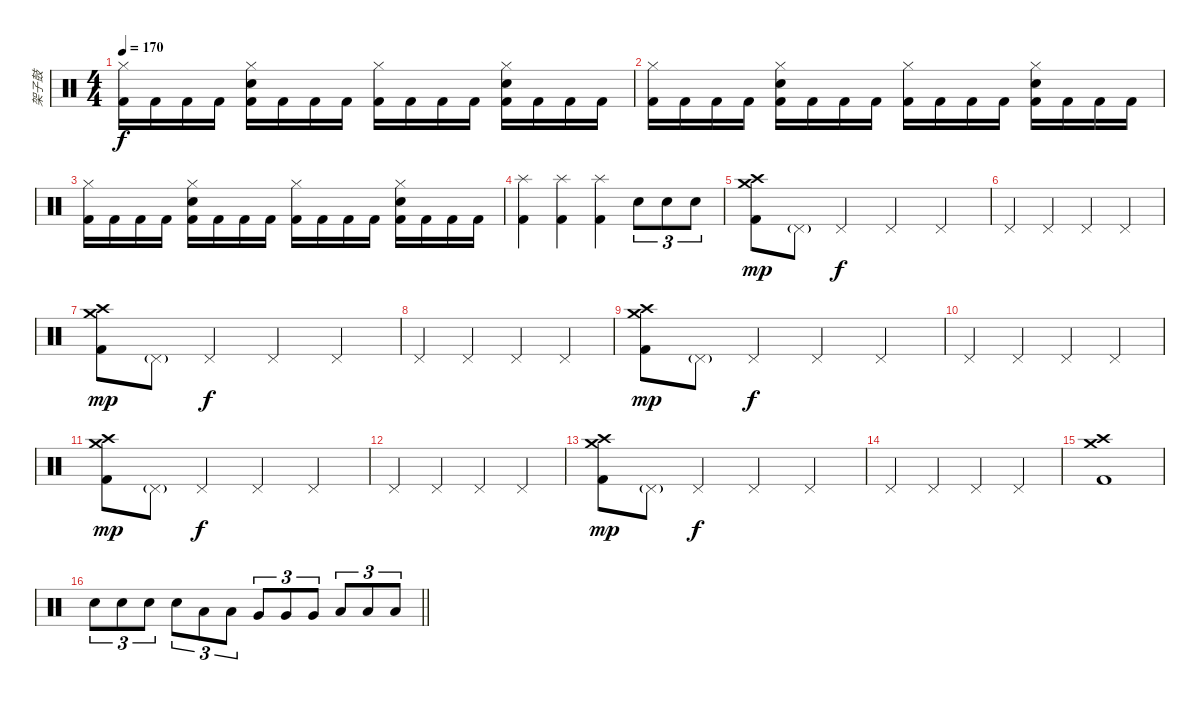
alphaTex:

\track ("架子鼓" "架子鼓") {instrument percussion}
\staff {score}
\articulation defaults
\ts (4 4)
\tempo 170
\clef neutral
\ks c
("Hi-Hat (closed)" "Kick (hit) 2").16{dy f} "Kick (hit) 2".16 "Kick (hit) 2".16 "Kick (hit) 2".16 ("Hi-Hat (closed)" "Snare (hit) 2" "Kick (hit) 2").16 "Kick (hit) 2".16 "Kick (hit) 2".16 "Kick (hit) 2".16 ("Hi-Hat (closed)" "Kick (hit) 2").16 "Kick (hit) 2".16 "Kick (hit) 2".16 "Kick (hit) 2".16 ("Hi-Hat (closed)" "Snare (hit) 2" "Kick (hit) 2").16 "Kick (hit) 2".16 "Kick (hit) 2".16 "Kick (hit) 2".16 |
("Hi-Hat (closed)" "Kick (hit) 2").16 "Kick (hit) 2".16 "Kick (hit) 2".16 "Kick (hit) 2".16 ("Hi-Hat (closed)" "Snare (hit) 2" "Kick (hit) 2").16 "Kick (hit) 2".16 "Kick (hit) 2".16 "Kick (hit) 2".16 ("Hi-Hat (closed)" "Kick (hit) 2").16 "Kick (hit) 2".16 "Kick (hit) 2".16 "Kick (hit) 2".16 ("Hi-Hat (closed)" "Snare (hit) 2" "Kick (hit) 2").16 "Kick (hit) 2".16 "Kick (hit) 2".16 "Kick (hit) 2".16 |
("Hi-Hat (closed)" "Kick (hit) 2").16 "Kick (hit) 2".16 "Kick (hit) 2".16 "Kick (hit) 2".16 ("Hi-Hat (closed)" "Snare (hit) 2" "Kick (hit) 2").16 "Kick (hit) 2".16 "Kick (hit) 2".16 "Kick (hit) 2".16 ("Hi-Hat (closed)" "Kick (hit) 2").16 "Kick (hit) 2".16 "Kick (hit) 2".16 "Kick (hit) 2".16 ("Hi-Hat (closed)" "Snare (hit) 2" "Kick (hit) 2").16 "Kick (hit) 2".16 "Kick (hit) 2".16 "Kick (hit) 2".16 |
("Kick (hit) 2" "Splash (hit)").4 ("Kick (hit) 2" "Splash (hit)").4 ("Kick (hit) 2" "Splash (hit)").4 "Snare (hit) 2".8{tu (3 2)} "Snare (hit) 2".8{tu (3 2)} "Snare (hit) 2".8{tu (3 2)} |
("Crash medium (hit)" "Kick (hit) 2" "Crash high (hit)").8{dy mp} "Pedal Hi-Hat (hit)"{g}.8 "Pedal Hi-Hat (hit)".4{dy f} "Pedal Hi-Hat (hit)".4 "Pedal Hi-Hat (hit)".4 |
"Pedal Hi-Hat (hit)".4 "Pedal Hi-Hat (hit)".4 "Pedal Hi-Hat (hit)".4 "Pedal Hi-Hat (hit)".4 |
("Crash medium (hit)" "Kick (hit) 2" "Crash high (hit)").8{dy mp} "Pedal Hi-Hat (hit)"{g}.8 "Pedal Hi-Hat (hit)".4{dy f} "Pedal Hi-Hat (hit)".4 "Pedal Hi-Hat (hit)".4 |
"Pedal Hi-Hat (hit)".4 "Pedal Hi-Hat (hit)".4 "Pedal Hi-Hat (hit)".4 "Pedal Hi-Hat (hit)".4 |
("Crash medium (hit)" "Kick (hit) 2" "Crash high (hit)").8{dy mp} "Pedal Hi-Hat (hit)"{g}.8 "Pedal Hi-Hat (hit)".4{dy f} "Pedal Hi-Hat (hit)".4 "Pedal Hi-Hat (hit)".4 |
"Pedal Hi-Hat (hit)".4 "Pedal Hi-Hat (hit)".4 "Pedal Hi-Hat (hit)".4 "Pedal Hi-Hat (hit)".4 |
("Crash medium (hit)" "Kick (hit) 2" "Crash high (hit)").8{dy mp} "Pedal Hi-Hat (hit)"{g}.8 "Pedal Hi-Hat (hit)".4{dy f} "Pedal Hi-Hat (hit)".4 "Pedal Hi-Hat (hit)".4 |
"Pedal Hi-Hat (hit)".4 "Pedal Hi-Hat (hit)".4 "Pedal Hi-Hat (hit)".4 "Pedal Hi-Hat (hit)".4 |
("Crash medium (hit)" "Kick (hit) 2" "Crash high (hit)").8{dy mp} "Pedal Hi-Hat (hit)"{g}.8 "Pedal Hi-Hat (hit)".4{dy f} "Pedal Hi-Hat (hit)".4 "Pedal Hi-Hat (hit)".4 |
"Pedal Hi-Hat (hit)".4 "Pedal Hi-Hat (hit)".4 "Pedal Hi-Hat (hit)".4 "Pedal Hi-Hat (hit)".4 |
("Kick (hit) 2" "Crash medium (hit)" "Crash high (hit)").1 |
\barLineRight lightlight "Snare (hit) 2".8{tu (3 2)} "Snare (hit) 2".8{tu (3 2)} "Snare (hit) 2".8{tu (3 2)} "Snare (hit) 2".8{tu (3 2)} "Low Tom (hit)".8{tu (3 2)} "Low Tom (hit)".8{tu (3 2)} "Very Low Tom (hit)".8{tu (3 2)} "Very Low Tom (hit)".8{tu (3 2)} "Very Low Tom (hit)".8{tu (3 2)} "Low Floor Tom (hit)".8{tu (3 2)} "Low Floor Tom (hit)".8{tu (3 2)} "Low Floor Tom (hit)".8{tu (3 2)}
